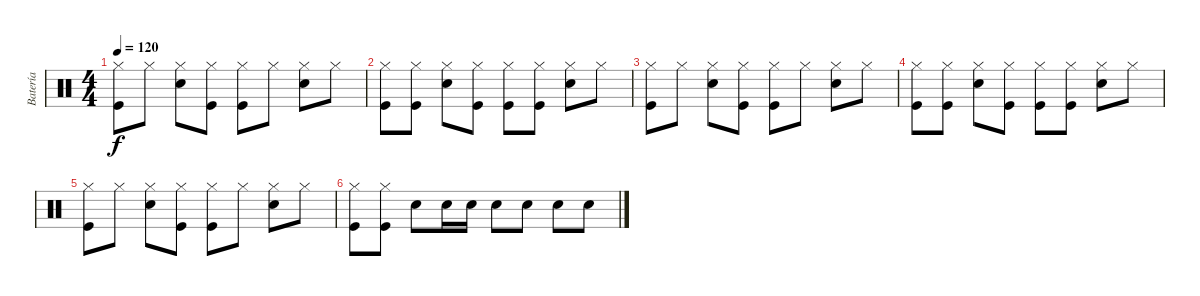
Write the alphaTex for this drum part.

\track ("Batería" "Batería") {instrument percussion}
\staff {score}
\articulation defaults
\ts (4 4)
\tempo 120
\clef neutral
\ks c
("Hi-Hat (closed)" "Kick (hit)").8{dy f} "Hi-Hat (closed)".8 ("Hi-Hat (closed)" "Snare (hit) 2").8 ("Hi-Hat (closed)" "Kick (hit)").8 ("Hi-Hat (closed)" "Kick (hit)").8 "Hi-Hat (closed)".8 ("Hi-Hat (closed)" "Snare (hit) 2").8 "Hi-Hat (closed)".8 |
("Hi-Hat (closed)" "Kick (hit)").8 ("Hi-Hat (closed)" "Kick (hit)").8 ("Hi-Hat (closed)" "Snare (hit) 2").8 ("Hi-Hat (closed)" "Kick (hit)").8 ("Hi-Hat (closed)" "Kick (hit)").8 ("Hi-Hat (closed)" "Kick (hit)").8 ("Hi-Hat (closed)" "Snare (hit) 2").8 "Hi-Hat (closed)".8 |
("Hi-Hat (closed)" "Kick (hit)").8 "Hi-Hat (closed)".8 ("Hi-Hat (closed)" "Snare (hit) 2").8 ("Hi-Hat (closed)" "Kick (hit)").8 ("Hi-Hat (closed)" "Kick (hit)").8 "Hi-Hat (closed)".8 ("Hi-Hat (closed)" "Snare (hit) 2").8 "Hi-Hat (closed)".8 |
("Hi-Hat (closed)" "Kick (hit)").8 ("Hi-Hat (closed)" "Kick (hit)").8 ("Hi-Hat (closed)" "Snare (hit) 2").8 ("Hi-Hat (closed)" "Kick (hit)").8 ("Hi-Hat (closed)" "Kick (hit)").8 ("Hi-Hat (closed)" "Kick (hit)").8 ("Hi-Hat (closed)" "Snare (hit) 2").8 "Hi-Hat (closed)".8 |
("Hi-Hat (closed)" "Kick (hit)").8 "Hi-Hat (closed)".8 ("Hi-Hat (closed)" "Snare (hit) 2").8 ("Hi-Hat (closed)" "Kick (hit)").8 ("Hi-Hat (closed)" "Kick (hit)").8 "Hi-Hat (closed)".8 ("Hi-Hat (closed)" "Snare (hit) 2").8 "Hi-Hat (closed)".8 |
("Hi-Hat (closed)" "Kick (hit)").8 ("Hi-Hat (closed)" "Kick (hit)").8 "Electric Snare (hit)".8 "Electric Snare (hit)".16 "Electric Snare (hit)".16 "Electric Snare (hit)".8 "Electric Snare (hit)".8 "Electric Snare (hit)".8 "Electric Snare (hit)".8
